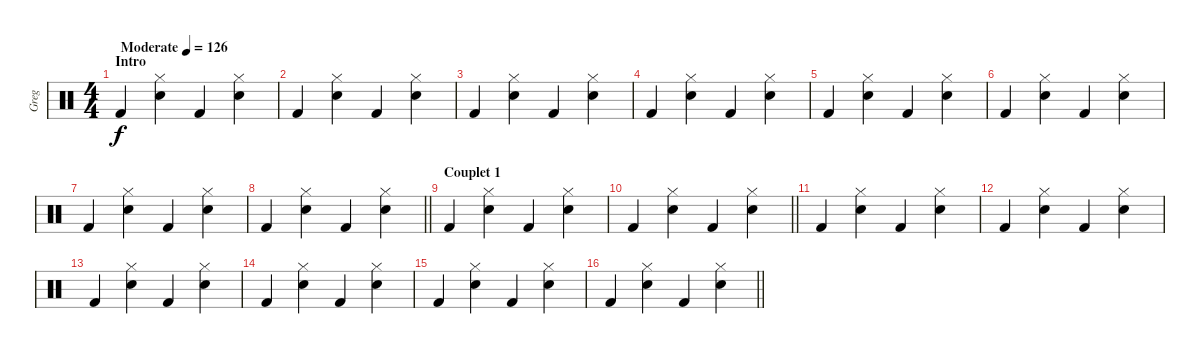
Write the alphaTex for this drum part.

\track ("Greg" "Greg") {instrument percussion}
\staff {score}
\articulation defaults
\ts (4 4)
\section ("" "Intro")
\tempo (126 "Moderate")
\clef neutral
\ks c "Kick (hit) 2".4{dy f}
("Hi-Hat (closed)" "Electric Snare (hit)").4 "Kick (hit) 2".4 ("Hi-Hat (closed)" "Electric Snare (hit)").4 |
"Kick (hit) 2".4 ("Hi-Hat (closed)" "Electric Snare (hit)").4 "Kick (hit) 2".4 ("Hi-Hat (closed)" "Electric Snare (hit)").4 |
"Kick (hit) 2".4 ("Hi-Hat (closed)" "Electric Snare (hit)").4 "Kick (hit) 2".4 ("Hi-Hat (closed)" "Electric Snare (hit)").4 |
"Kick (hit) 2".4 ("Hi-Hat (closed)" "Electric Snare (hit)").4 "Kick (hit) 2".4 ("Hi-Hat (closed)" "Electric Snare (hit)").4 |
"Kick (hit) 2".4 ("Hi-Hat (closed)" "Electric Snare (hit)").4 "Kick (hit) 2".4 ("Hi-Hat (closed)" "Electric Snare (hit)").4 |
"Kick (hit) 2".4 ("Hi-Hat (closed)" "Electric Snare (hit)").4 "Kick (hit) 2".4 ("Hi-Hat (closed)" "Electric Snare (hit)").4 |
"Kick (hit) 2".4 ("Hi-Hat (closed)" "Electric Snare (hit)").4 "Kick (hit) 2".4 ("Hi-Hat (closed)" "Electric Snare (hit)").4 |
\barLineRight lightlight "Kick (hit) 2".4
("Hi-Hat (closed)" "Electric Snare (hit)").4 "Kick (hit) 2".4 ("Hi-Hat (closed)" "Electric Snare (hit)").4 |
\section ("" "Couplet 1")
"Kick (hit) 2".4 ("Hi-Hat (closed)" "Electric Snare (hit)").4 "Kick (hit) 2".4 ("Hi-Hat (closed)" "Electric Snare (hit)").4 |
\barLineRight lightlight "Kick (hit) 2".4
("Hi-Hat (closed)" "Electric Snare (hit)").4 "Kick (hit) 2".4 ("Hi-Hat (closed)" "Electric Snare (hit)").4 |
"Kick (hit) 2".4 ("Hi-Hat (closed)" "Electric Snare (hit)").4 "Kick (hit) 2".4 ("Hi-Hat (closed)" "Electric Snare (hit)").4 |
"Kick (hit) 2".4 ("Hi-Hat (closed)" "Electric Snare (hit)").4 "Kick (hit) 2".4 ("Hi-Hat (closed)" "Electric Snare (hit)").4 |
"Kick (hit) 2".4 ("Hi-Hat (closed)" "Electric Snare (hit)").4 "Kick (hit) 2".4 ("Hi-Hat (closed)" "Electric Snare (hit)").4 |
"Kick (hit) 2".4 ("Hi-Hat (closed)" "Electric Snare (hit)").4 "Kick (hit) 2".4 ("Hi-Hat (closed)" "Electric Snare (hit)").4 |
"Kick (hit) 2".4 ("Hi-Hat (closed)" "Electric Snare (hit)").4 "Kick (hit) 2".4 ("Hi-Hat (closed)" "Electric Snare (hit)").4 |
\barLineRight lightlight "Kick (hit) 2".4
("Hi-Hat (closed)" "Electric Snare (hit)").4 "Kick (hit) 2".4 ("Hi-Hat (closed)" "Electric Snare (hit)").4
